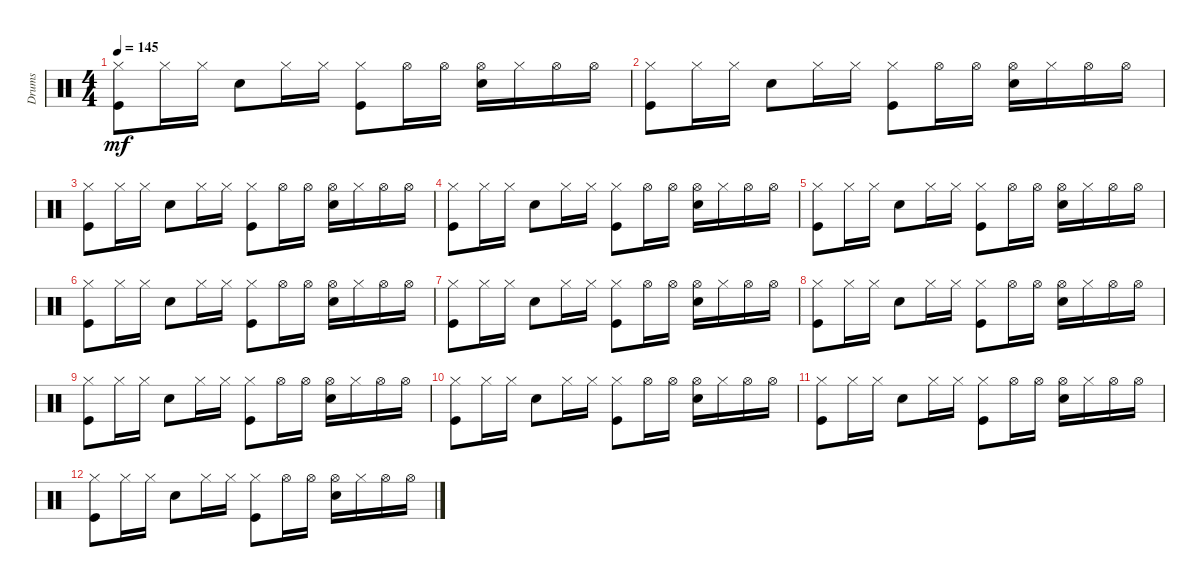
\track ("Drums" "Drums") {instrument percussion}
\staff {score}
\articulation defaults
\ts (4 4)
\tempo 145
\clef neutral
\ks c
("Kick (hit)" "Hi-Hat (closed)").8{dy mf} "Hi-Hat (closed)".16 "Hi-Hat (closed)".16 "Snare (hit) 2".8 "Hi-Hat (closed)".16 "Hi-Hat (closed)".16 ("Kick (hit)" "Hi-Hat (closed)").8 "Hi-Hat (open)".16 "Hi-Hat (open)".16 ("Snare (hit) 2" "Hi-Hat (open)").16 "Hi-Hat (closed)".16 "Hi-Hat (open)".16 "Hi-Hat (open)".16 |
("Kick (hit)" "Hi-Hat (closed)").8 "Hi-Hat (closed)".16 "Hi-Hat (closed)".16 "Snare (hit) 2".8 "Hi-Hat (closed)".16 "Hi-Hat (closed)".16 ("Kick (hit)" "Hi-Hat (closed)").8 "Hi-Hat (open)".16 "Hi-Hat (open)".16 ("Snare (hit) 2" "Hi-Hat (open)").16 "Hi-Hat (closed)".16 "Hi-Hat (open)".16 "Hi-Hat (open)".16 |
("Kick (hit)" "Hi-Hat (closed)").8 "Hi-Hat (closed)".16 "Hi-Hat (closed)".16 "Snare (hit) 2".8 "Hi-Hat (closed)".16 "Hi-Hat (closed)".16 ("Kick (hit)" "Hi-Hat (closed)").8 "Hi-Hat (open)".16 "Hi-Hat (open)".16 ("Snare (hit) 2" "Hi-Hat (open)").16 "Hi-Hat (closed)".16 "Hi-Hat (open)".16 "Hi-Hat (open)".16 |
("Kick (hit)" "Hi-Hat (closed)").8 "Hi-Hat (closed)".16 "Hi-Hat (closed)".16 "Snare (hit) 2".8 "Hi-Hat (closed)".16 "Hi-Hat (closed)".16 ("Kick (hit)" "Hi-Hat (closed)").8 "Hi-Hat (open)".16 "Hi-Hat (open)".16 ("Snare (hit) 2" "Hi-Hat (open)").16 "Hi-Hat (closed)".16 "Hi-Hat (open)".16 "Hi-Hat (open)".16 |
("Kick (hit)" "Hi-Hat (closed)").8 "Hi-Hat (closed)".16 "Hi-Hat (closed)".16 "Snare (hit) 2".8 "Hi-Hat (closed)".16 "Hi-Hat (closed)".16 ("Kick (hit)" "Hi-Hat (closed)").8 "Hi-Hat (open)".16 "Hi-Hat (open)".16 ("Snare (hit) 2" "Hi-Hat (open)").16 "Hi-Hat (closed)".16 "Hi-Hat (open)".16 "Hi-Hat (open)".16 |
("Kick (hit)" "Hi-Hat (closed)").8 "Hi-Hat (closed)".16 "Hi-Hat (closed)".16 "Snare (hit) 2".8 "Hi-Hat (closed)".16 "Hi-Hat (closed)".16 ("Kick (hit)" "Hi-Hat (closed)").8 "Hi-Hat (open)".16 "Hi-Hat (open)".16 ("Snare (hit) 2" "Hi-Hat (open)").16 "Hi-Hat (closed)".16 "Hi-Hat (open)".16 "Hi-Hat (open)".16 |
("Kick (hit)" "Hi-Hat (closed)").8 "Hi-Hat (closed)".16 "Hi-Hat (closed)".16 "Snare (hit) 2".8 "Hi-Hat (closed)".16 "Hi-Hat (closed)".16 ("Kick (hit)" "Hi-Hat (closed)").8 "Hi-Hat (open)".16 "Hi-Hat (open)".16 ("Snare (hit) 2" "Hi-Hat (open)").16 "Hi-Hat (closed)".16 "Hi-Hat (open)".16 "Hi-Hat (open)".16 |
("Kick (hit)" "Hi-Hat (closed)").8 "Hi-Hat (closed)".16 "Hi-Hat (closed)".16 "Snare (hit) 2".8 "Hi-Hat (closed)".16 "Hi-Hat (closed)".16 ("Kick (hit)" "Hi-Hat (closed)").8 "Hi-Hat (open)".16 "Hi-Hat (open)".16 ("Snare (hit) 2" "Hi-Hat (open)").16 "Hi-Hat (closed)".16 "Hi-Hat (open)".16 "Hi-Hat (open)".16 |
("Kick (hit)" "Hi-Hat (closed)").8 "Hi-Hat (closed)".16 "Hi-Hat (closed)".16 "Snare (hit) 2".8 "Hi-Hat (closed)".16 "Hi-Hat (closed)".16 ("Kick (hit)" "Hi-Hat (closed)").8 "Hi-Hat (open)".16 "Hi-Hat (open)".16 ("Snare (hit) 2" "Hi-Hat (open)").16 "Hi-Hat (closed)".16 "Hi-Hat (open)".16 "Hi-Hat (open)".16 |
("Kick (hit)" "Hi-Hat (closed)").8 "Hi-Hat (closed)".16 "Hi-Hat (closed)".16 "Snare (hit) 2".8 "Hi-Hat (closed)".16 "Hi-Hat (closed)".16 ("Kick (hit)" "Hi-Hat (closed)").8 "Hi-Hat (open)".16 "Hi-Hat (open)".16 ("Snare (hit) 2" "Hi-Hat (open)").16 "Hi-Hat (closed)".16 "Hi-Hat (open)".16 "Hi-Hat (open)".16 |
("Kick (hit)" "Hi-Hat (closed)").8 "Hi-Hat (closed)".16 "Hi-Hat (closed)".16 "Snare (hit) 2".8 "Hi-Hat (closed)".16 "Hi-Hat (closed)".16 ("Kick (hit)" "Hi-Hat (closed)").8 "Hi-Hat (open)".16 "Hi-Hat (open)".16 ("Snare (hit) 2" "Hi-Hat (open)").16 "Hi-Hat (closed)".16 "Hi-Hat (open)".16 "Hi-Hat (open)".16 |
("Kick (hit)" "Hi-Hat (closed)").8 "Hi-Hat (closed)".16 "Hi-Hat (closed)".16 "Snare (hit) 2".8 "Hi-Hat (closed)".16 "Hi-Hat (closed)".16 ("Kick (hit)" "Hi-Hat (closed)").8 "Hi-Hat (open)".16 "Hi-Hat (open)".16 ("Snare (hit) 2" "Hi-Hat (open)").16 "Hi-Hat (closed)".16 "Hi-Hat (open)".16 "Hi-Hat (open)".16
